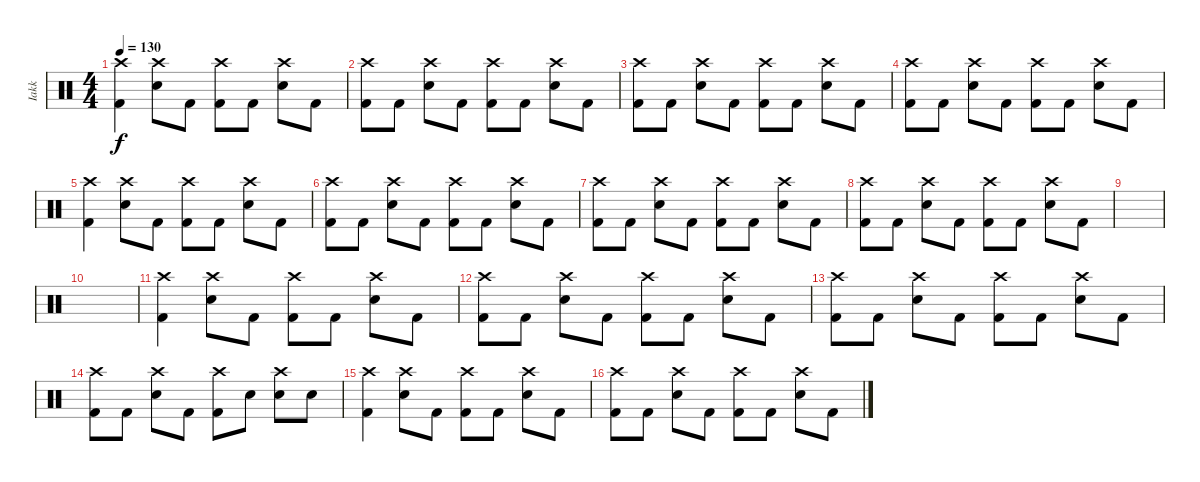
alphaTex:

\track ("Iakk" "Iakk") {instrument percussion}
\staff {score}
\articulation defaults
\ts (4 4)
\tempo 130
\clef neutral
\ks c
("Crash high (hit)" "Kick (hit) 2").4{dy f} ("Crash high (hit)" "Electric Snare (hit)").8 "Kick (hit) 2".8 ("Crash high (hit)" "Kick (hit) 2").8 "Kick (hit) 2".8 ("Crash high (hit)" "Electric Snare (hit)").8 "Kick (hit) 2".8 |
("Crash high (hit)" "Kick (hit) 2").8 "Kick (hit) 2".8 ("Crash high (hit)" "Electric Snare (hit)").8 "Kick (hit) 2".8 ("Crash high (hit)" "Kick (hit) 2").8 "Kick (hit) 2".8 ("Crash high (hit)" "Electric Snare (hit)").8 "Kick (hit) 2".8 |
("Crash high (hit)" "Kick (hit) 2").8 "Kick (hit) 2".8 ("Crash high (hit)" "Electric Snare (hit)").8 "Kick (hit) 2".8 ("Crash high (hit)" "Kick (hit) 2").8 "Kick (hit) 2".8 ("Crash high (hit)" "Electric Snare (hit)").8 "Kick (hit) 2".8 |
("Crash high (hit)" "Kick (hit) 2").8 "Kick (hit) 2".8 ("Crash high (hit)" "Electric Snare (hit)").8 "Kick (hit) 2".8 ("Crash high (hit)" "Kick (hit) 2").8 "Kick (hit) 2".8 ("Crash high (hit)" "Electric Snare (hit)").8 "Kick (hit) 2".8 |
("Crash high (hit)" "Kick (hit) 2").4 ("Crash high (hit)" "Electric Snare (hit)").8 "Kick (hit) 2".8 ("Crash high (hit)" "Kick (hit) 2").8 "Kick (hit) 2".8 ("Crash high (hit)" "Electric Snare (hit)").8 "Kick (hit) 2".8 |
("Crash high (hit)" "Kick (hit) 2").8 "Kick (hit) 2".8 ("Crash high (hit)" "Electric Snare (hit)").8 "Kick (hit) 2".8 ("Crash high (hit)" "Kick (hit) 2").8 "Kick (hit) 2".8 ("Crash high (hit)" "Electric Snare (hit)").8 "Kick (hit) 2".8 |
("Crash high (hit)" "Kick (hit) 2").8 "Kick (hit) 2".8 ("Crash high (hit)" "Electric Snare (hit)").8 "Kick (hit) 2".8 ("Crash high (hit)" "Kick (hit) 2").8 "Kick (hit) 2".8 ("Crash high (hit)" "Electric Snare (hit)").8 "Kick (hit) 2".8 |
("Crash high (hit)" "Kick (hit) 2").8 "Kick (hit) 2".8 ("Crash high (hit)" "Electric Snare (hit)").8 "Kick (hit) 2".8 ("Crash high (hit)" "Kick (hit) 2").8 "Kick (hit) 2".8 ("Crash high (hit)" "Electric Snare (hit)").8 "Kick (hit) 2".8 |
|
|
("Crash high (hit)" "Kick (hit) 2").4 ("Crash high (hit)" "Electric Snare (hit)").8 "Kick (hit) 2".8 ("Crash high (hit)" "Kick (hit) 2").8 "Kick (hit) 2".8 ("Crash high (hit)" "Electric Snare (hit)").8 "Kick (hit) 2".8 |
("Crash high (hit)" "Kick (hit) 2").8 "Kick (hit) 2".8 ("Crash high (hit)" "Electric Snare (hit)").8 "Kick (hit) 2".8 ("Crash high (hit)" "Kick (hit) 2").8 "Kick (hit) 2".8 ("Crash high (hit)" "Electric Snare (hit)").8 "Kick (hit) 2".8 |
("Crash high (hit)" "Kick (hit) 2").8 "Kick (hit) 2".8 ("Crash high (hit)" "Electric Snare (hit)").8 "Kick (hit) 2".8 ("Crash high (hit)" "Kick (hit) 2").8 "Kick (hit) 2".8 ("Crash high (hit)" "Electric Snare (hit)").8 "Kick (hit) 2".8 |
("Crash high (hit)" "Kick (hit) 2").8 "Kick (hit) 2".8 ("Crash high (hit)" "Electric Snare (hit)").8 "Kick (hit) 2".8 ("Crash high (hit)" "Kick (hit) 2").8 "Electric Snare (hit)".8 ("Crash high (hit)" "Electric Snare (hit)").8 "Electric Snare (hit)".8 |
("Crash high (hit)" "Kick (hit) 2").4 ("Crash high (hit)" "Electric Snare (hit)").8 "Kick (hit) 2".8 ("Crash high (hit)" "Kick (hit) 2").8 "Kick (hit) 2".8 ("Crash high (hit)" "Electric Snare (hit)").8 "Kick (hit) 2".8 |
("Crash high (hit)" "Kick (hit) 2").8 "Kick (hit) 2".8 ("Crash high (hit)" "Electric Snare (hit)").8 "Kick (hit) 2".8 ("Crash high (hit)" "Kick (hit) 2").8 "Kick (hit) 2".8 ("Crash high (hit)" "Electric Snare (hit)").8 "Kick (hit) 2".8
